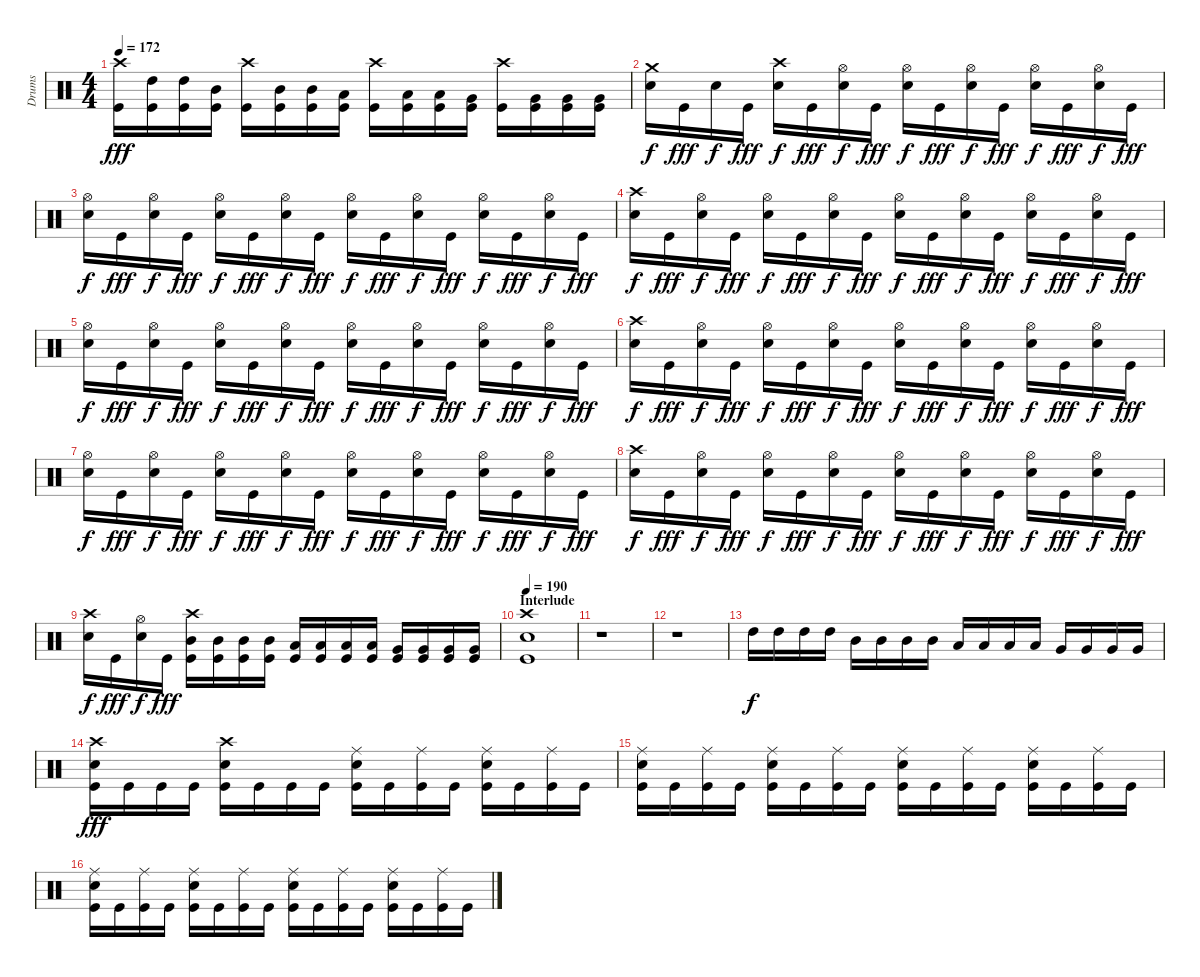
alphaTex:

\track ("Drums" "Drums") {instrument percussion}
\staff {score}
\articulation defaults
\ts (4 4)
\tempo 172
\clef neutral
\ks c
("Crash high (hit)" "Kick (hit)").16{dy fff} ("High Tom (hit)" "Kick (hit)").16 ("High Tom (hit)" "Kick (hit)").16 ("Mid Tom (hit)" "Kick (hit)").16 ("Crash high (hit)" "Kick (hit)").16 ("Mid Tom (hit)" "Kick (hit)").16 ("Mid Tom (hit)" "Kick (hit)").16 ("Low Tom (hit)" "Kick (hit)").16 ("Crash high (hit)" "Kick (hit)").16 ("Low Tom (hit)" "Kick (hit)").16 ("Low Tom (hit)" "Kick (hit)").16 ("Very Low Tom (hit)" "Kick (hit)").16 ("Crash high (hit)" "Kick (hit)").16 ("Very Low Tom (hit)" "Kick (hit)").16 ("Very Low Tom (hit)" "Kick (hit)").16 ("Very Low Tom (hit)" "Kick (hit)").16 |
("Crash medium (hit)" "Electric Snare (hit)").16{dy f} "Kick (hit)".16{dy fff} "Electric Snare (hit)".16{dy f} "Kick (hit)".16{dy fff} ("Crash high (hit)" "Electric Snare (hit)").16{dy f} "Kick (hit)".16{dy fff} ("Hi-Hat (open)" "Electric Snare (hit)").16{dy f} "Kick (hit)".16{dy fff} ("Hi-Hat (open)" "Electric Snare (hit)").16{dy f} "Kick (hit)".16{dy fff} ("Hi-Hat (open)" "Electric Snare (hit)").16{dy f} "Kick (hit)".16{dy fff} ("Hi-Hat (open)" "Electric Snare (hit)").16{dy f} "Kick (hit)".16{dy fff} ("Hi-Hat (open)" "Electric Snare (hit)").16{dy f} "Kick (hit)".16{dy fff} |
("Hi-Hat (open)" "Electric Snare (hit)").16{dy f} "Kick (hit)".16{dy fff} ("Hi-Hat (open)" "Electric Snare (hit)").16{dy f} "Kick (hit)".16{dy fff} ("Hi-Hat (open)" "Electric Snare (hit)").16{dy f} "Kick (hit)".16{dy fff} ("Hi-Hat (open)" "Electric Snare (hit)").16{dy f} "Kick (hit)".16{dy fff} ("Hi-Hat (open)" "Electric Snare (hit)").16{dy f} "Kick (hit)".16{dy fff} ("Hi-Hat (open)" "Electric Snare (hit)").16{dy f} "Kick (hit)".16{dy fff} ("Hi-Hat (open)" "Electric Snare (hit)").16{dy f} "Kick (hit)".16{dy fff} ("Hi-Hat (open)" "Electric Snare (hit)").16{dy f} "Kick (hit)".16{dy fff} |
("Crash high (hit)" "Electric Snare (hit)").16{dy f} "Kick (hit)".16{dy fff} ("Hi-Hat (open)" "Electric Snare (hit)").16{dy f} "Kick (hit)".16{dy fff} ("Hi-Hat (open)" "Electric Snare (hit)").16{dy f} "Kick (hit)".16{dy fff} ("Hi-Hat (open)" "Electric Snare (hit)").16{dy f} "Kick (hit)".16{dy fff} ("Hi-Hat (open)" "Electric Snare (hit)").16{dy f} "Kick (hit)".16{dy fff} ("Hi-Hat (open)" "Electric Snare (hit)").16{dy f} "Kick (hit)".16{dy fff} ("Hi-Hat (open)" "Electric Snare (hit)").16{dy f} "Kick (hit)".16{dy fff} ("Hi-Hat (open)" "Electric Snare (hit)").16{dy f} "Kick (hit)".16{dy fff} |
("Hi-Hat (open)" "Electric Snare (hit)").16{dy f} "Kick (hit)".16{dy fff} ("Hi-Hat (open)" "Electric Snare (hit)").16{dy f} "Kick (hit)".16{dy fff} ("Hi-Hat (open)" "Electric Snare (hit)").16{dy f} "Kick (hit)".16{dy fff} ("Hi-Hat (open)" "Electric Snare (hit)").16{dy f} "Kick (hit)".16{dy fff} ("Hi-Hat (open)" "Electric Snare (hit)").16{dy f} "Kick (hit)".16{dy fff} ("Hi-Hat (open)" "Electric Snare (hit)").16{dy f} "Kick (hit)".16{dy fff} ("Hi-Hat (open)" "Electric Snare (hit)").16{dy f} "Kick (hit)".16{dy fff} ("Hi-Hat (open)" "Electric Snare (hit)").16{dy f} "Kick (hit)".16{dy fff} |
("Crash high (hit)" "Electric Snare (hit)").16{dy f} "Kick (hit)".16{dy fff} ("Hi-Hat (open)" "Electric Snare (hit)").16{dy f} "Kick (hit)".16{dy fff} ("Hi-Hat (open)" "Electric Snare (hit)").16{dy f} "Kick (hit)".16{dy fff} ("Hi-Hat (open)" "Electric Snare (hit)").16{dy f} "Kick (hit)".16{dy fff} ("Hi-Hat (open)" "Electric Snare (hit)").16{dy f} "Kick (hit)".16{dy fff} ("Hi-Hat (open)" "Electric Snare (hit)").16{dy f} "Kick (hit)".16{dy fff} ("Hi-Hat (open)" "Electric Snare (hit)").16{dy f} "Kick (hit)".16{dy fff} ("Hi-Hat (open)" "Electric Snare (hit)").16{dy f} "Kick (hit)".16{dy fff} |
("Hi-Hat (open)" "Electric Snare (hit)").16{dy f} "Kick (hit)".16{dy fff} ("Hi-Hat (open)" "Electric Snare (hit)").16{dy f} "Kick (hit)".16{dy fff} ("Hi-Hat (open)" "Electric Snare (hit)").16{dy f} "Kick (hit)".16{dy fff} ("Hi-Hat (open)" "Electric Snare (hit)").16{dy f} "Kick (hit)".16{dy fff} ("Hi-Hat (open)" "Electric Snare (hit)").16{dy f} "Kick (hit)".16{dy fff} ("Hi-Hat (open)" "Electric Snare (hit)").16{dy f} "Kick (hit)".16{dy fff} ("Hi-Hat (open)" "Electric Snare (hit)").16{dy f} "Kick (hit)".16{dy fff} ("Hi-Hat (open)" "Electric Snare (hit)").16{dy f} "Kick (hit)".16{dy fff} |
("Crash high (hit)" "Electric Snare (hit)").16{dy f} "Kick (hit)".16{dy fff} ("Hi-Hat (open)" "Electric Snare (hit)").16{dy f} "Kick (hit)".16{dy fff} ("Hi-Hat (open)" "Electric Snare (hit)").16{dy f} "Kick (hit)".16{dy fff} ("Hi-Hat (open)" "Electric Snare (hit)").16{dy f} "Kick (hit)".16{dy fff} ("Hi-Hat (open)" "Electric Snare (hit)").16{dy f} "Kick (hit)".16{dy fff} ("Hi-Hat (open)" "Electric Snare (hit)").16{dy f} "Kick (hit)".16{dy fff} ("Hi-Hat (open)" "Electric Snare (hit)").16{dy f} "Kick (hit)".16{dy fff} ("Hi-Hat (open)" "Electric Snare (hit)").16{dy f} "Kick (hit)".16{dy fff} |
("Crash high (hit)" "Electric Snare (hit)").16{dy f} "Kick (hit)".16{dy fff} ("Hi-Hat (open)" "Electric Snare (hit)").16{dy f} "Kick (hit)".16{dy fff} ("Crash high (hit)" "Mid Tom (hit)" "Kick (hit)").16 ("Mid Tom (hit)" "Kick (hit)").16 ("Mid Tom (hit)" "Kick (hit)").16 ("Mid Tom (hit)" "Kick (hit)").16 ("Low Tom (hit)" "Kick (hit)").16 ("Low Tom (hit)" "Kick (hit)").16 ("Low Tom (hit)" "Kick (hit)").16 ("Low Tom (hit)" "Kick (hit)").16 ("Very Low Tom (hit)" "Kick (hit)").16 ("Very Low Tom (hit)" "Kick (hit)").16 ("Very Low Tom (hit)" "Kick (hit)").16 ("Very Low Tom (hit)" "Kick (hit)").16 |
\section ("" "Interlude")
\tempo 190
("Crash high (hit)" "Electric Snare (hit)" "Kick (hit)").1 |
r.1 |
r.1 |
"High Tom (hit)".16{dy f} "High Tom (hit)".16 "High Tom (hit)".16 "High Tom (hit)".16 "Mid Tom (hit)".16 "Mid Tom (hit)".16 "Mid Tom (hit)".16 "Mid Tom (hit)".16 "Low Tom (hit)".16 "Low Tom (hit)".16 "Low Tom (hit)".16 "Low Tom (hit)".16 "Very Low Tom (hit)".16 "Very Low Tom (hit)".16 "Very Low Tom (hit)".16 "Very Low Tom (hit)".16 |
("Crash high (hit)" "Electric Snare (hit)" "Kick (hit)").16{dy fff} "Kick (hit)".16 "Kick (hit)".16 "Kick (hit)".16 ("Crash high (hit)" "Electric Snare (hit)" "Kick (hit)").16 "Kick (hit)".16 "Kick (hit)".16 "Kick (hit)".16 ("Ride (middle)" "Electric Snare (hit)" "Kick (hit)").16 "Kick (hit)".16 ("Ride (middle)" "Kick (hit)").16 "Kick (hit)".16 ("Ride (middle)" "Electric Snare (hit)" "Kick (hit)").16 "Kick (hit)".16 ("Ride (middle)" "Kick (hit)").16 "Kick (hit)".16 |
("Ride (middle)" "Electric Snare (hit)" "Kick (hit)").16 "Kick (hit)".16 ("Ride (middle)" "Kick (hit)").16 "Kick (hit)".16 ("Ride (middle)" "Electric Snare (hit)" "Kick (hit)").16 "Kick (hit)".16 ("Ride (middle)" "Kick (hit)").16 "Kick (hit)".16 ("Ride (middle)" "Electric Snare (hit)" "Kick (hit)").16 "Kick (hit)".16 ("Ride (middle)" "Kick (hit)").16 "Kick (hit)".16 ("Ride (middle)" "Electric Snare (hit)" "Kick (hit)").16 "Kick (hit)".16 ("Ride (middle)" "Kick (hit)").16 "Kick (hit)".16 |
("Ride (middle)" "Electric Snare (hit)" "Kick (hit)").16 "Kick (hit)".16 ("Ride (middle)" "Kick (hit)").16 "Kick (hit)".16 ("Ride (middle)" "Electric Snare (hit)" "Kick (hit)").16 "Kick (hit)".16 ("Ride (middle)" "Kick (hit)").16 "Kick (hit)".16 ("Ride (middle)" "Electric Snare (hit)" "Kick (hit)").16 "Kick (hit)".16 ("Ride (middle)" "Kick (hit)").16 "Kick (hit)".16 ("Ride (middle)" "Electric Snare (hit)" "Kick (hit)").16 "Kick (hit)".16 ("Ride (middle)" "Kick (hit)").16 "Kick (hit)".16
